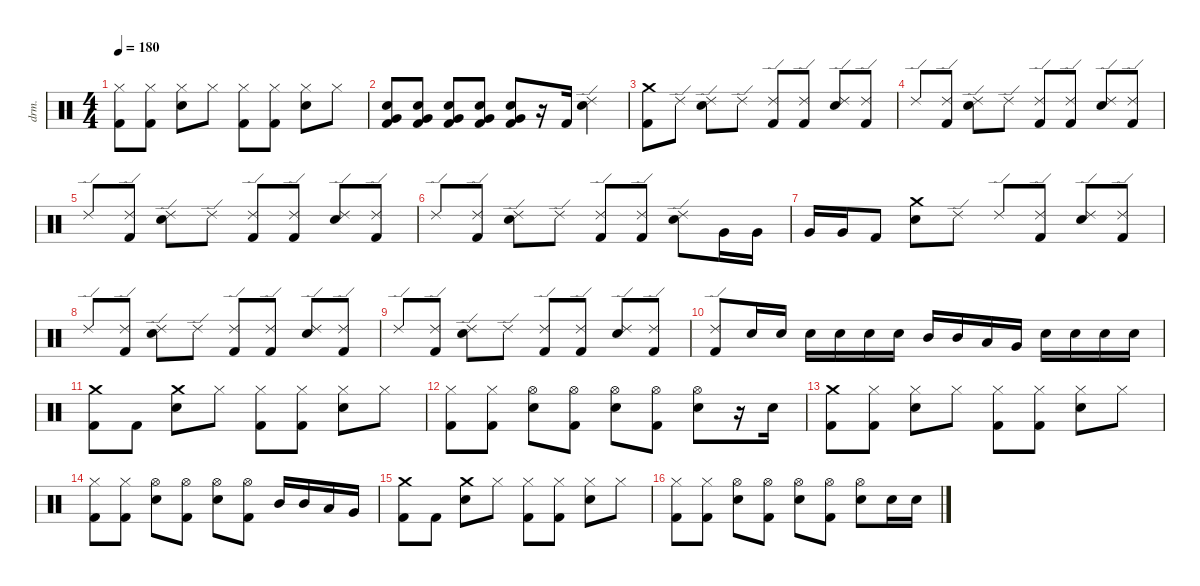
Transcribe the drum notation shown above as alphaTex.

\defaultSystemsLayout 4
\hideDynamics
\bracketExtendMode nobrackets
\otherSystemsTrackNameOrientation horizontal
\track ("Drums" "drm.") {instrument percussion}
\staff {score}
\articulation defaults
\ts (4 4)
\tempo 180
\clef neutral
\ks c
("Hi-Hat (closed)" "Kick (hit) 2").8{dy f beam Down} ("Hi-Hat (closed)" "Kick (hit) 2").8{beam Down} ("Hi-Hat (closed)" "Snare (hit) 2").8{beam Down} "Hi-Hat (closed)".8{beam Down} ("Hi-Hat (closed)" "Kick (hit) 2").8{beam Down} ("Hi-Hat (closed)" "Kick (hit) 2").8{beam Down} ("Hi-Hat (closed)" "Snare (hit) 2").8{beam Down} "Hi-Hat (closed)".8{beam Down} |
("Very Low Tom (hit)" "Snare (hit) 2" "Kick (hit) 2").8{beam Up} ("Very Low Tom (hit)" "Snare (hit) 2" "Kick (hit) 2").8{beam Up} ("Very Low Tom (hit)" "Snare (hit) 2" "Kick (hit) 2").8{beam Up} ("Very Low Tom (hit)" "Snare (hit) 2" "Kick (hit) 2").8{beam Up} ("Very Low Tom (hit)" "Snare (hit) 2" "Kick (hit) 2").8{beam Up} r.16{beam Up} "Kick (hit) 2".16{beam Up} ("Ride (edge) 2" "Snare (hit) 2").4{beam Down} |
("Crash medium (hit)" "Kick (hit) 2").8{beam Down} "Ride (edge) 2".8{beam Down} ("Ride (edge) 2" "Snare (hit) 2").8{beam Down} "Ride (edge) 2".8{beam Down} ("Ride (edge) 2" "Kick (hit) 2").8{beam Up} ("Ride (edge) 2" "Kick (hit) 2").8{beam Up} ("Ride (edge) 2" "Snare (hit) 2").8{beam Up} ("Ride (edge) 2" "Kick (hit) 2").8{beam Up} |
"Ride (edge) 2".8{beam Up} ("Ride (edge) 2" "Kick (hit) 2").8{beam Up} ("Ride (edge) 2" "Snare (hit) 2").8{beam Down} "Ride (edge) 2".8{beam Down} ("Ride (edge) 2" "Kick (hit) 2").8{beam Up} ("Ride (edge) 2" "Kick (hit) 2").8{beam Up} ("Ride (edge) 2" "Snare (hit) 2").8{beam Up} ("Ride (edge) 2" "Kick (hit) 2").8{beam Up} |
"Ride (edge) 2".8{beam Up} ("Ride (edge) 2" "Kick (hit) 2").8{beam Up} ("Ride (edge) 2" "Snare (hit) 2").8{beam Down} "Ride (edge) 2".8{beam Down} ("Ride (edge) 2" "Kick (hit) 2").8{beam Up} ("Ride (edge) 2" "Kick (hit) 2").8{beam Up} ("Ride (edge) 2" "Snare (hit) 2").8{beam Up} ("Ride (edge) 2" "Kick (hit) 2").8{beam Up} |
"Ride (edge) 2".8{beam Up} ("Ride (edge) 2" "Kick (hit) 2").8{beam Up} ("Ride (edge) 2" "Snare (hit) 2").8{beam Down} "Ride (edge) 2".8{beam Down} ("Ride (edge) 2" "Kick (hit) 2").8{beam Up} ("Ride (edge) 2" "Kick (hit) 2").8{beam Up} ("Ride (edge) 2" "Snare (hit) 2").8{beam Down} "Very Low Tom (hit)".16{beam Down} "Very Low Tom (hit)".16{beam Down} |
"Very Low Tom (hit)".16{beam Up} "Very Low Tom (hit)".16{beam Up} "Kick (hit) 2".8{beam Up} ("Crash medium (hit)" "Snare (hit) 2").8{beam Down} "Ride (edge) 2".8{beam Down} "Ride (edge) 2".8{beam Up} ("Ride (edge) 2" "Kick (hit) 2").8{beam Up} ("Ride (edge) 2" "Snare (hit) 2").8{beam Up} ("Ride (edge) 2" "Kick (hit) 2").8{beam Up} |
"Ride (edge) 2".8{beam Up} ("Ride (edge) 2" "Kick (hit) 2").8{beam Up} ("Ride (edge) 2" "Snare (hit) 2").8{beam Down} "Ride (edge) 2".8{beam Down} ("Ride (edge) 2" "Kick (hit) 2").8{beam Up} ("Ride (edge) 2" "Kick (hit) 2").8{beam Up} ("Ride (edge) 2" "Snare (hit) 2").8{beam Up} ("Ride (edge) 2" "Kick (hit) 2").8{beam Up} |
"Ride (edge) 2".8{beam Up} ("Ride (edge) 2" "Kick (hit) 2").8{beam Up} ("Ride (edge) 2" "Snare (hit) 2").8{beam Down} "Ride (edge) 2".8{beam Down} ("Ride (edge) 2" "Kick (hit) 2").8{beam Up} ("Ride (edge) 2" "Kick (hit) 2").8{beam Up} ("Ride (edge) 2" "Snare (hit) 2").8{beam Up} ("Ride (edge) 2" "Kick (hit) 2").8{beam Up} |
("Ride (edge) 2" "Kick (hit) 2").8{beam Up} "Snare (hit) 2".16{beam Up} "Snare (hit) 2".16{beam Up} "Snare (hit) 2".16{beam Down} "Snare (hit) 2".16{beam Down} "Snare (hit) 2".16{beam Down} "Snare (hit) 2".16{beam Down} "Mid Tom (hit)".16{beam Up} "Mid Tom (hit)".16{beam Up} "Low Tom (hit)".16{beam Up} "Very Low Tom (hit)".16{beam Up} "Snare (hit) 2".16{beam Down} "Snare (hit) 2".16{beam Down} "Snare (hit) 2".16{beam Down} "Snare (hit) 2".16{beam Down} |
("Crash medium (hit)" "Kick (hit) 2").8{beam Down} "Kick (hit) 2".8{beam Down} ("Crash medium (hit)" "Snare (hit) 2").8{beam Down} "Hi-Hat (closed)".8{beam Down} ("Hi-Hat (closed)" "Kick (hit) 2").8{beam Down} ("Hi-Hat (closed)" "Kick (hit) 2").8{beam Down} ("Hi-Hat (closed)" "Snare (hit) 2").8{beam Down} "Hi-Hat (closed)".8{beam Down} |
("Hi-Hat (closed)" "Kick (hit) 2").8{beam Down} ("Hi-Hat (closed)" "Kick (hit) 2").8{beam Down} ("Hi-Hat (open)" "Snare (hit) 2").8{beam Down} ("Hi-Hat (open)" "Kick (hit) 2").8{beam Down} ("Hi-Hat (open)" "Snare (hit) 2").8{beam Down} ("Hi-Hat (open)" "Kick (hit) 2").8{beam Down} ("Hi-Hat (open)" "Snare (hit) 2").8{beam Down} r.16{beam Down} "Snare (hit) 2".16{beam Down} |
("Crash medium (hit)" "Kick (hit) 2").8{beam Down} ("Hi-Hat (closed)" "Kick (hit) 2").8{beam Down} ("Hi-Hat (closed)" "Snare (hit) 2").8{beam Down} "Hi-Hat (closed)".8{beam Down} ("Hi-Hat (closed)" "Kick (hit) 2").8{beam Down} ("Hi-Hat (closed)" "Kick (hit) 2").8{beam Down} ("Hi-Hat (closed)" "Snare (hit) 2").8{beam Down} "Hi-Hat (closed)".8{beam Down} |
("Hi-Hat (closed)" "Kick (hit) 2").8{beam Down} ("Hi-Hat (closed)" "Kick (hit) 2").8{beam Down} ("Hi-Hat (open)" "Snare (hit) 2").8{beam Down} ("Hi-Hat (open)" "Kick (hit) 2").8{beam Down} ("Hi-Hat (open)" "Snare (hit) 2").8{beam Down} ("Hi-Hat (open)" "Kick (hit) 2").8{beam Down} "Mid Tom (hit)".16{beam Up} "Mid Tom (hit)".16{beam Up} "Low Tom (hit)".16{beam Up} "Very Low Tom (hit)".16{beam Up} |
("Crash medium (hit)" "Kick (hit) 2").8{beam Down} "Kick (hit) 2".8{beam Down} ("Crash medium (hit)" "Snare (hit) 2").8{beam Down} "Hi-Hat (closed)".8{beam Down} ("Hi-Hat (closed)" "Kick (hit) 2").8{beam Down} ("Hi-Hat (closed)" "Kick (hit) 2").8{beam Down} ("Hi-Hat (closed)" "Snare (hit) 2").8{beam Down} "Hi-Hat (closed)".8{beam Down} |
("Hi-Hat (closed)" "Kick (hit) 2").8{beam Down} ("Hi-Hat (closed)" "Kick (hit) 2").8{beam Down} ("Hi-Hat (open)" "Snare (hit) 2").8{beam Down} ("Hi-Hat (open)" "Kick (hit) 2").8{beam Down} ("Hi-Hat (open)" "Snare (hit) 2").8{beam Down} ("Hi-Hat (open)" "Kick (hit) 2").8{beam Down} ("Hi-Hat (open)" "Snare (hit) 2").8{beam Down} "Snare (hit) 2".16{beam Down} "Snare (hit) 2".16{beam Down}
